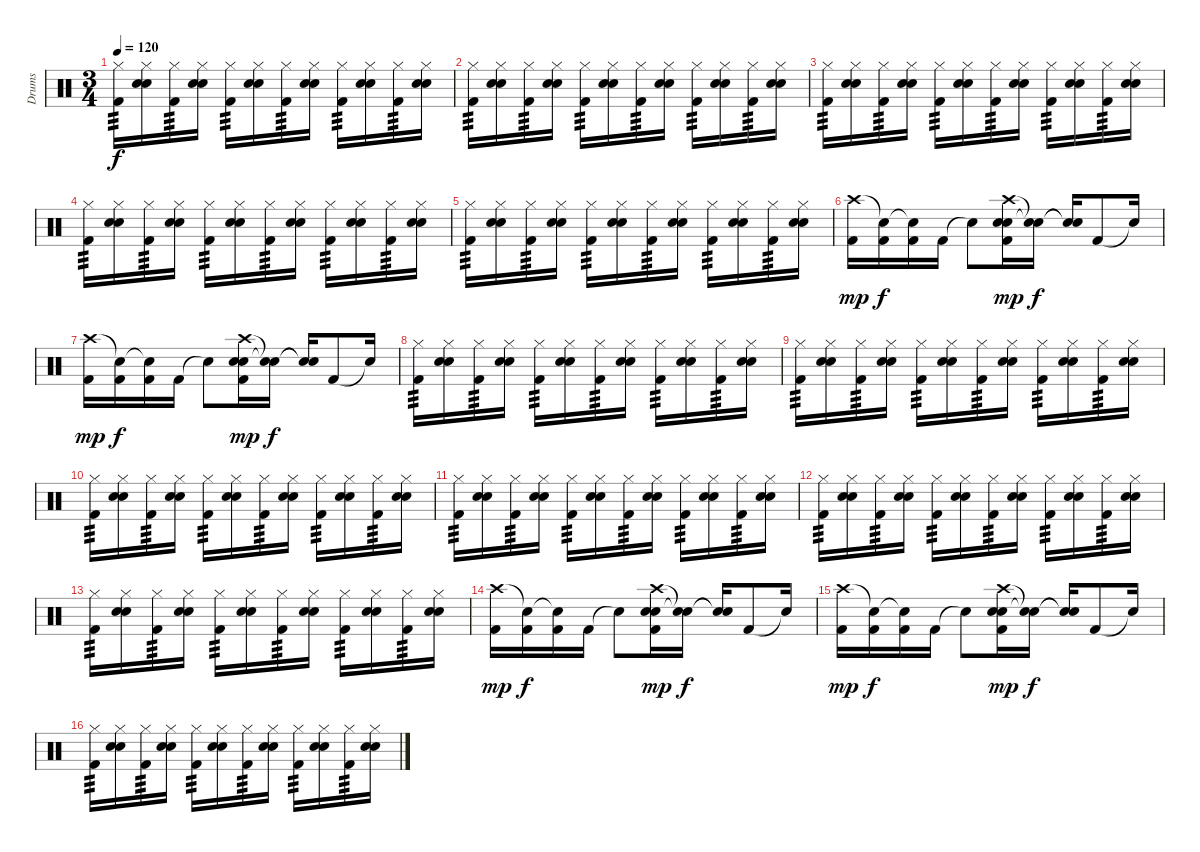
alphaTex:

\track ("Drums" "Drums") {instrument percussion}
\staff {score}
\articulation defaults
\ts (3 4)
\tempo 120
\clef neutral
\ks c
("Hi-Hat (closed)" "Kick (hit) 2").16{tp 3 dy f} ("Hi-Hat (closed)" "Snare (hit) 2" "Electric Snare (hit)").16 ("Hi-Hat (closed)" "Kick (hit) 2").16{tp 3} ("Hi-Hat (closed)" "Snare (hit) 2" "Electric Snare (hit)").16 ("Hi-Hat (closed)" "Kick (hit) 2").16{tp 3} ("Hi-Hat (closed)" "Snare (hit) 2" "Electric Snare (hit)").16 ("Hi-Hat (closed)" "Kick (hit) 2").16{tp 3} ("Hi-Hat (closed)" "Snare (hit) 2" "Electric Snare (hit)").16 ("Hi-Hat (closed)" "Kick (hit) 2").16{tp 3} ("Hi-Hat (closed)" "Snare (hit) 2" "Electric Snare (hit)").16 ("Hi-Hat (closed)" "Kick (hit) 2").16{tp 3} ("Hi-Hat (closed)" "Snare (hit) 2" "Electric Snare (hit)").16 |
("Hi-Hat (closed)" "Kick (hit) 2").16{tp 3} ("Hi-Hat (closed)" "Snare (hit) 2" "Electric Snare (hit)").16 ("Hi-Hat (closed)" "Kick (hit) 2").16{tp 3} ("Hi-Hat (closed)" "Snare (hit) 2" "Electric Snare (hit)").16 ("Hi-Hat (closed)" "Kick (hit) 2").16{tp 3} ("Hi-Hat (closed)" "Snare (hit) 2" "Electric Snare (hit)").16 ("Hi-Hat (closed)" "Kick (hit) 2").16{tp 3} ("Hi-Hat (closed)" "Snare (hit) 2" "Electric Snare (hit)").16 ("Hi-Hat (closed)" "Kick (hit) 2").16{tp 3} ("Hi-Hat (closed)" "Snare (hit) 2" "Electric Snare (hit)").16 ("Hi-Hat (closed)" "Kick (hit) 2").16{tp 3} ("Hi-Hat (closed)" "Snare (hit) 2" "Electric Snare (hit)").16 |
("Hi-Hat (closed)" "Kick (hit) 2").16{tp 3} ("Hi-Hat (closed)" "Snare (hit) 2" "Electric Snare (hit)").16 ("Hi-Hat (closed)" "Kick (hit) 2").16{tp 3} ("Hi-Hat (closed)" "Snare (hit) 2" "Electric Snare (hit)").16 ("Hi-Hat (closed)" "Kick (hit) 2").16{tp 3} ("Hi-Hat (closed)" "Snare (hit) 2" "Electric Snare (hit)").16 ("Hi-Hat (closed)" "Kick (hit) 2").16{tp 3} ("Hi-Hat (closed)" "Snare (hit) 2" "Electric Snare (hit)").16 ("Hi-Hat (closed)" "Kick (hit) 2").16{tp 3} ("Hi-Hat (closed)" "Snare (hit) 2" "Electric Snare (hit)").16 ("Hi-Hat (closed)" "Kick (hit) 2").16{tp 3} ("Hi-Hat (closed)" "Snare (hit) 2" "Electric Snare (hit)").16 |
("Hi-Hat (closed)" "Kick (hit) 2").16{tp 3} ("Hi-Hat (closed)" "Snare (hit) 2" "Electric Snare (hit)").16 ("Hi-Hat (closed)" "Kick (hit) 2").16{tp 3} ("Hi-Hat (closed)" "Snare (hit) 2" "Electric Snare (hit)").16 ("Hi-Hat (closed)" "Kick (hit) 2").16{tp 3} ("Hi-Hat (closed)" "Snare (hit) 2" "Electric Snare (hit)").16 ("Hi-Hat (closed)" "Kick (hit) 2").16{tp 3} ("Hi-Hat (closed)" "Snare (hit) 2" "Electric Snare (hit)").16 ("Hi-Hat (closed)" "Kick (hit) 2").16{tp 3} ("Hi-Hat (closed)" "Snare (hit) 2" "Electric Snare (hit)").16 ("Hi-Hat (closed)" "Kick (hit) 2").16{tp 3} ("Hi-Hat (closed)" "Snare (hit) 2" "Electric Snare (hit)").16 |
("Hi-Hat (closed)" "Kick (hit) 2").16{tp 3} ("Hi-Hat (closed)" "Snare (hit) 2" "Electric Snare (hit)").16 ("Hi-Hat (closed)" "Kick (hit) 2").16{tp 3} ("Hi-Hat (closed)" "Snare (hit) 2" "Electric Snare (hit)").16 ("Hi-Hat (closed)" "Kick (hit) 2").16{tp 3} ("Hi-Hat (closed)" "Snare (hit) 2" "Electric Snare (hit)").16 ("Hi-Hat (closed)" "Kick (hit) 2").16{tp 3} ("Hi-Hat (closed)" "Snare (hit) 2" "Electric Snare (hit)").16 ("Hi-Hat (closed)" "Kick (hit) 2").16{tp 3} ("Hi-Hat (closed)" "Snare (hit) 2" "Electric Snare (hit)").16 ("Hi-Hat (closed)" "Kick (hit) 2").16{tp 3} ("Hi-Hat (closed)" "Snare (hit) 2" "Electric Snare (hit)").16 |
("Crash high (hit)" "Kick (hit) 2").16{dy mp} ("Snare (hit)"{t} "Kick (hit) 2").16{dy f} ("Snare (hit)"{t} "Kick (hit) 2").16 "Kick (hit) 2".16 "Snare (hit)"{t}.8 ("Crash high (hit)" "Snare (hit) 2" "Electric Snare (hit)" "Kick (hit) 2").16{dy mp} ("Snare (hit)"{t} "Snare (hit)"{t}).16{dy f} ("Snare (hit)"{t} "Snare (hit)"{t}).16 "Kick (hit) 2".8 "Snare (hit)"{t}.16 |
("Crash high (hit)" "Kick (hit) 2").16{dy mp} ("Snare (hit)"{t} "Kick (hit) 2").16{dy f} ("Snare (hit)"{t} "Kick (hit) 2").16 "Kick (hit) 2".16 "Snare (hit)"{t}.8 ("Crash high (hit)" "Snare (hit) 2" "Electric Snare (hit)" "Kick (hit) 2").16{dy mp} ("Snare (hit)"{t} "Snare (hit)"{t}).16{dy f} ("Snare (hit)"{t} "Snare (hit)"{t}).16 "Kick (hit) 2".8 "Snare (hit)"{t}.16 |
("Hi-Hat (closed)" "Kick (hit) 2").16{tp 3} ("Hi-Hat (closed)" "Snare (hit) 2" "Electric Snare (hit)").16 ("Hi-Hat (closed)" "Kick (hit) 2").16{tp 3} ("Hi-Hat (closed)" "Snare (hit) 2" "Electric Snare (hit)").16 ("Hi-Hat (closed)" "Kick (hit) 2").16{tp 3} ("Hi-Hat (closed)" "Snare (hit) 2" "Electric Snare (hit)").16 ("Hi-Hat (closed)" "Kick (hit) 2").16{tp 3} ("Hi-Hat (closed)" "Snare (hit) 2" "Electric Snare (hit)").16 ("Hi-Hat (closed)" "Kick (hit) 2").16{tp 3} ("Hi-Hat (closed)" "Snare (hit) 2" "Electric Snare (hit)").16 ("Hi-Hat (closed)" "Kick (hit) 2").16{tp 3} ("Hi-Hat (closed)" "Snare (hit) 2" "Electric Snare (hit)").16 |
("Hi-Hat (closed)" "Kick (hit) 2").16{tp 3} ("Hi-Hat (closed)" "Snare (hit) 2" "Electric Snare (hit)").16 ("Hi-Hat (closed)" "Kick (hit) 2").16{tp 3} ("Hi-Hat (closed)" "Snare (hit) 2" "Electric Snare (hit)").16 ("Hi-Hat (closed)" "Kick (hit) 2").16{tp 3} ("Hi-Hat (closed)" "Snare (hit) 2" "Electric Snare (hit)").16 ("Hi-Hat (closed)" "Kick (hit) 2").16{tp 3} ("Hi-Hat (closed)" "Snare (hit) 2" "Electric Snare (hit)").16 ("Hi-Hat (closed)" "Kick (hit) 2").16{tp 3} ("Hi-Hat (closed)" "Snare (hit) 2" "Electric Snare (hit)").16 ("Hi-Hat (closed)" "Kick (hit) 2").16{tp 3} ("Hi-Hat (closed)" "Snare (hit) 2" "Electric Snare (hit)").16 |
("Hi-Hat (closed)" "Kick (hit) 2").16{tp 3} ("Hi-Hat (closed)" "Snare (hit) 2" "Electric Snare (hit)").16 ("Hi-Hat (closed)" "Kick (hit) 2").16{tp 3} ("Hi-Hat (closed)" "Snare (hit) 2" "Electric Snare (hit)").16 ("Hi-Hat (closed)" "Kick (hit) 2").16{tp 3} ("Hi-Hat (closed)" "Snare (hit) 2" "Electric Snare (hit)").16 ("Hi-Hat (closed)" "Kick (hit) 2").16{tp 3} ("Hi-Hat (closed)" "Snare (hit) 2" "Electric Snare (hit)").16 ("Hi-Hat (closed)" "Kick (hit) 2").16{tp 3} ("Hi-Hat (closed)" "Snare (hit) 2" "Electric Snare (hit)").16 ("Hi-Hat (closed)" "Kick (hit) 2").16{tp 3} ("Hi-Hat (closed)" "Snare (hit) 2" "Electric Snare (hit)").16 |
("Hi-Hat (closed)" "Kick (hit) 2").16{tp 3} ("Hi-Hat (closed)" "Snare (hit) 2" "Electric Snare (hit)").16 ("Hi-Hat (closed)" "Kick (hit) 2").16{tp 3} ("Hi-Hat (closed)" "Snare (hit) 2" "Electric Snare (hit)").16 ("Hi-Hat (closed)" "Kick (hit) 2").16{tp 3} ("Hi-Hat (closed)" "Snare (hit) 2" "Electric Snare (hit)").16 ("Hi-Hat (closed)" "Kick (hit) 2").16{tp 3} ("Hi-Hat (closed)" "Snare (hit) 2" "Electric Snare (hit)").16 ("Hi-Hat (closed)" "Kick (hit) 2").16{tp 3} ("Hi-Hat (closed)" "Snare (hit) 2" "Electric Snare (hit)").16 ("Hi-Hat (closed)" "Kick (hit) 2").16{tp 3} ("Hi-Hat (closed)" "Snare (hit) 2" "Electric Snare (hit)").16 |
("Hi-Hat (closed)" "Kick (hit) 2").16{tp 3} ("Hi-Hat (closed)" "Snare (hit) 2" "Electric Snare (hit)").16 ("Hi-Hat (closed)" "Kick (hit) 2").16{tp 3} ("Hi-Hat (closed)" "Snare (hit) 2" "Electric Snare (hit)").16 ("Hi-Hat (closed)" "Kick (hit) 2").16{tp 3} ("Hi-Hat (closed)" "Snare (hit) 2" "Electric Snare (hit)").16 ("Hi-Hat (closed)" "Kick (hit) 2").16{tp 3} ("Hi-Hat (closed)" "Snare (hit) 2" "Electric Snare (hit)").16 ("Hi-Hat (closed)" "Kick (hit) 2").16{tp 3} ("Hi-Hat (closed)" "Snare (hit) 2" "Electric Snare (hit)").16 ("Hi-Hat (closed)" "Kick (hit) 2").16{tp 3} ("Hi-Hat (closed)" "Snare (hit) 2" "Electric Snare (hit)").16 |
("Hi-Hat (closed)" "Kick (hit) 2").16{tp 3} ("Hi-Hat (closed)" "Snare (hit) 2" "Electric Snare (hit)").16 ("Hi-Hat (closed)" "Kick (hit) 2").16{tp 3} ("Hi-Hat (closed)" "Snare (hit) 2" "Electric Snare (hit)").16 ("Hi-Hat (closed)" "Kick (hit) 2").16{tp 3} ("Hi-Hat (closed)" "Snare (hit) 2" "Electric Snare (hit)").16 ("Hi-Hat (closed)" "Kick (hit) 2").16{tp 3} ("Hi-Hat (closed)" "Snare (hit) 2" "Electric Snare (hit)").16 ("Hi-Hat (closed)" "Kick (hit) 2").16{tp 3} ("Hi-Hat (closed)" "Snare (hit) 2" "Electric Snare (hit)").16 ("Hi-Hat (closed)" "Kick (hit) 2").16{tp 3} ("Hi-Hat (closed)" "Snare (hit) 2" "Electric Snare (hit)").16 |
("Crash high (hit)" "Kick (hit) 2").16{dy mp} ("Snare (hit)"{t} "Kick (hit) 2").16{dy f} ("Snare (hit)"{t} "Kick (hit) 2").16 "Kick (hit) 2".16 "Snare (hit)"{t}.8 ("Crash high (hit)" "Snare (hit) 2" "Electric Snare (hit)" "Kick (hit) 2").16{dy mp} ("Snare (hit)"{t} "Snare (hit)"{t}).16{dy f} ("Snare (hit)"{t} "Snare (hit)"{t}).16 "Kick (hit) 2".8 "Snare (hit)"{t}.16 |
("Crash high (hit)" "Kick (hit) 2").16{dy mp} ("Snare (hit)"{t} "Kick (hit) 2").16{dy f} ("Snare (hit)"{t} "Kick (hit) 2").16 "Kick (hit) 2".16 "Snare (hit)"{t}.8 ("Crash high (hit)" "Snare (hit) 2" "Electric Snare (hit)" "Kick (hit) 2").16{dy mp} ("Snare (hit)"{t} "Snare (hit)"{t}).16{dy f} ("Snare (hit)"{t} "Snare (hit)"{t}).16 "Kick (hit) 2".8 "Snare (hit)"{t}.16 |
("Hi-Hat (closed)" "Kick (hit) 2").16{tp 3} ("Hi-Hat (closed)" "Snare (hit) 2" "Electric Snare (hit)").16 ("Hi-Hat (closed)" "Kick (hit) 2").16{tp 3} ("Hi-Hat (closed)" "Snare (hit) 2" "Electric Snare (hit)").16 ("Hi-Hat (closed)" "Kick (hit) 2").16{tp 3} ("Hi-Hat (closed)" "Snare (hit) 2" "Electric Snare (hit)").16 ("Hi-Hat (closed)" "Kick (hit) 2").16{tp 3} ("Hi-Hat (closed)" "Snare (hit) 2" "Electric Snare (hit)").16 ("Hi-Hat (closed)" "Kick (hit) 2").16{tp 3} ("Hi-Hat (closed)" "Snare (hit) 2" "Electric Snare (hit)").16 ("Hi-Hat (closed)" "Kick (hit) 2").16{tp 3} ("Hi-Hat (closed)" "Snare (hit) 2" "Electric Snare (hit)").16
